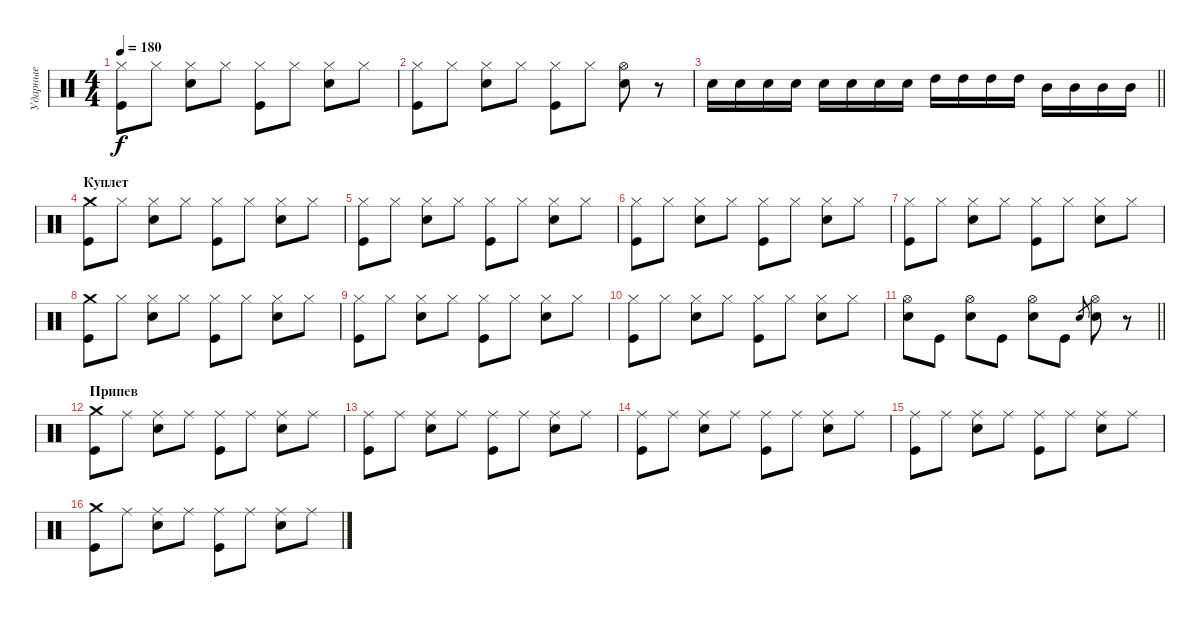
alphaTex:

\track ("Ударные" "Ударные") {instrument percussion}
\staff {score}
\articulation defaults
\ts (4 4)
\tempo 180
\clef neutral
\ks c
("Hi-Hat (closed)" "Kick (hit)").8{dy f} "Hi-Hat (closed)".8 ("Hi-Hat (closed)" "Electric Snare (hit)").8 "Hi-Hat (closed)".8 ("Hi-Hat (closed)" "Kick (hit)").8 "Hi-Hat (closed)".8 ("Hi-Hat (closed)" "Electric Snare (hit)").8 "Hi-Hat (closed)".8 |
("Hi-Hat (closed)" "Kick (hit)").8 "Hi-Hat (closed)".8 ("Hi-Hat (closed)" "Electric Snare (hit)").8 "Hi-Hat (closed)".8 ("Hi-Hat (closed)" "Kick (hit)").8 "Hi-Hat (closed)".8 ("Hi-Hat (open)" "Electric Snare (hit)").8 r.8 |
\barLineRight lightlight "Electric Snare (hit)".16 "Electric Snare (hit)".16 "Electric Snare (hit)".16 "Electric Snare (hit)".16 "Electric Snare (hit)".16 "Electric Snare (hit)".16 "Electric Snare (hit)".16 "Electric Snare (hit)".16 "High Tom (hit)".16 "High Tom (hit)".16 "High Tom (hit)".16 "High Tom (hit)".16 "Mid Tom (hit)".16 "Mid Tom (hit)".16 "Mid Tom (hit)".16 "Mid Tom (hit)".16
|
\section ("" "Куплет")
("Crash medium (hit)" "Kick (hit)").8 "Hi-Hat (closed)".8 ("Hi-Hat (closed)" "Electric Snare (hit)").8 "Hi-Hat (closed)".8 ("Hi-Hat (closed)" "Kick (hit)").8 "Hi-Hat (closed)".8 ("Hi-Hat (closed)" "Electric Snare (hit)").8 "Hi-Hat (closed)".8 |
("Hi-Hat (closed)" "Kick (hit)").8 "Hi-Hat (closed)".8 ("Hi-Hat (closed)" "Electric Snare (hit)").8 "Hi-Hat (closed)".8 ("Hi-Hat (closed)" "Kick (hit)").8 "Hi-Hat (closed)".8 ("Hi-Hat (closed)" "Electric Snare (hit)").8 "Hi-Hat (closed)".8 |
("Hi-Hat (closed)" "Kick (hit)").8 "Hi-Hat (closed)".8 ("Hi-Hat (closed)" "Electric Snare (hit)").8 "Hi-Hat (closed)".8 ("Hi-Hat (closed)" "Kick (hit)").8 "Hi-Hat (closed)".8 ("Hi-Hat (closed)" "Electric Snare (hit)").8 "Hi-Hat (closed)".8 |
("Hi-Hat (closed)" "Kick (hit)").8 "Hi-Hat (closed)".8 ("Hi-Hat (closed)" "Electric Snare (hit)").8 "Hi-Hat (closed)".8 ("Hi-Hat (closed)" "Kick (hit)").8 "Hi-Hat (closed)".8 ("Hi-Hat (closed)" "Electric Snare (hit)").8 "Hi-Hat (closed)".8 |
("Crash medium (hit)" "Kick (hit)").8 "Hi-Hat (closed)".8 ("Hi-Hat (closed)" "Electric Snare (hit)").8 "Hi-Hat (closed)".8 ("Hi-Hat (closed)" "Kick (hit)").8 "Hi-Hat (closed)".8 ("Hi-Hat (closed)" "Electric Snare (hit)").8 "Hi-Hat (closed)".8 |
("Hi-Hat (closed)" "Kick (hit)").8 "Hi-Hat (closed)".8 ("Hi-Hat (closed)" "Electric Snare (hit)").8 "Hi-Hat (closed)".8 ("Hi-Hat (closed)" "Kick (hit)").8 "Hi-Hat (closed)".8 ("Hi-Hat (closed)" "Electric Snare (hit)").8 "Hi-Hat (closed)".8 |
("Hi-Hat (closed)" "Kick (hit)").8 "Hi-Hat (closed)".8 ("Hi-Hat (closed)" "Electric Snare (hit)").8 "Hi-Hat (closed)".8 ("Hi-Hat (closed)" "Kick (hit)").8 "Hi-Hat (closed)".8 ("Hi-Hat (closed)" "Electric Snare (hit)").8 "Hi-Hat (closed)".8 |
\barLineRight lightlight
("Hi-Hat (open)" "Electric Snare (hit)").8 "Kick (hit)".8 ("Hi-Hat (open)" "Electric Snare (hit)").8 "Kick (hit)".8 ("Hi-Hat (open)" "Electric Snare (hit)").8 "Kick (hit)".8 "Electric Snare (hit)".8{gr} ("Hi-Hat (open)" "Electric Snare (hit)").8 r.8 |
\section ("" "Припев")
("Crash medium (hit)" "Kick (hit)").8 "Ride (middle)".8 ("Ride (middle)" "Electric Snare (hit)").8 "Ride (middle)".8 ("Ride (middle)" "Kick (hit)").8 "Ride (middle)".8 ("Ride (middle)" "Electric Snare (hit)").8 "Ride (middle)".8 |
("Ride (middle)" "Kick (hit)").8 "Ride (middle)".8 ("Ride (middle)" "Electric Snare (hit)").8 "Ride (middle)".8 ("Ride (middle)" "Kick (hit)").8 "Ride (middle)".8 ("Ride (middle)" "Electric Snare (hit)").8 "Ride (middle)".8 |
("Ride (middle)" "Kick (hit)").8 "Ride (middle)".8 ("Ride (middle)" "Electric Snare (hit)").8 "Ride (middle)".8 ("Ride (middle)" "Kick (hit)").8 "Ride (middle)".8 ("Ride (middle)" "Electric Snare (hit)").8 "Ride (middle)".8 |
("Ride (middle)" "Kick (hit)").8 "Ride (middle)".8 ("Ride (middle)" "Electric Snare (hit)").8 "Ride (middle)".8 ("Ride (middle)" "Kick (hit)").8 "Ride (middle)".8 ("Ride (middle)" "Electric Snare (hit)").8 "Ride (middle)".8 |
("Crash medium (hit)" "Kick (hit)").8 "Ride (middle)".8 ("Ride (middle)" "Electric Snare (hit)").8 "Ride (middle)".8 ("Ride (middle)" "Kick (hit)").8 "Ride (middle)".8 ("Ride (middle)" "Electric Snare (hit)").8 "Ride (middle)".8
